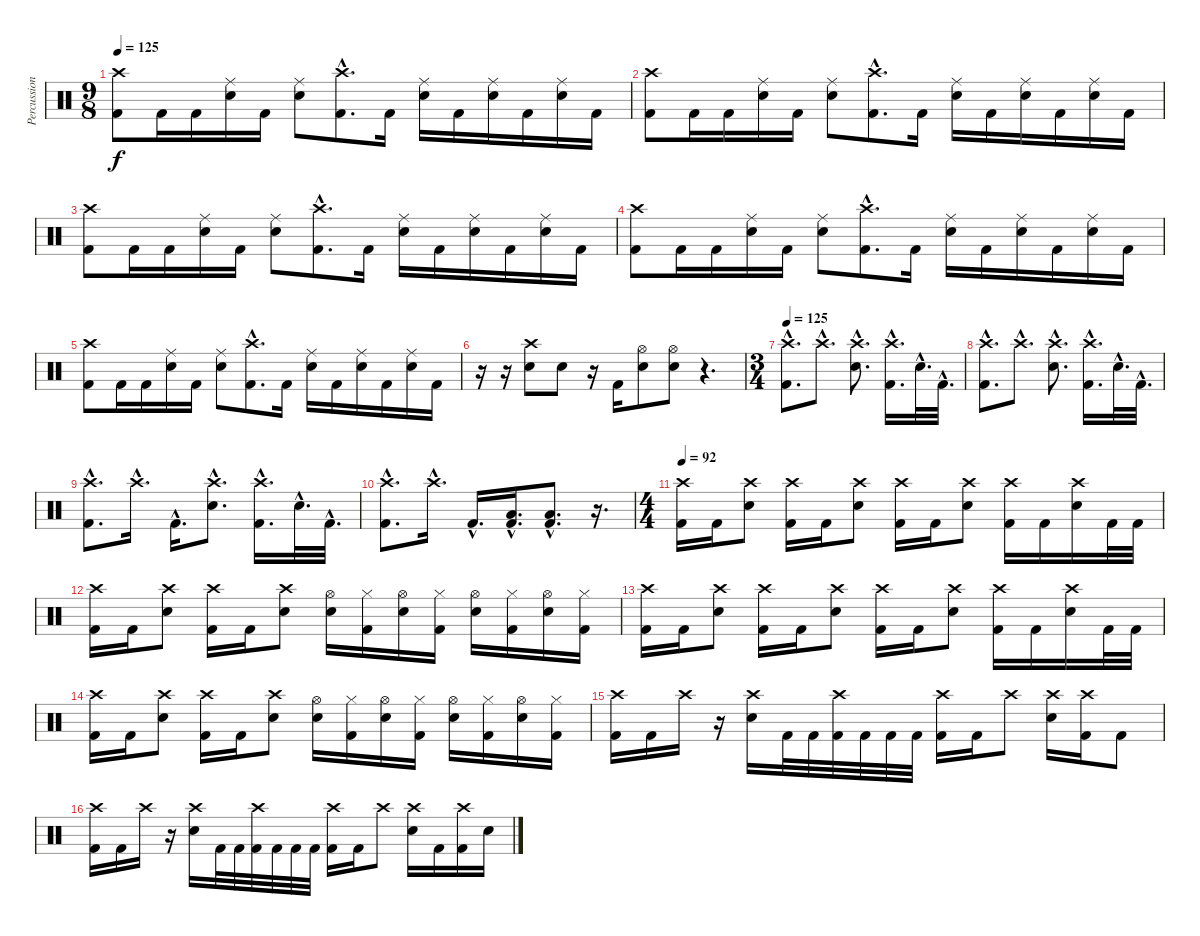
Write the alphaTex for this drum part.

\track ("Percussion" "Percussion") {instrument percussion}
\staff {score}
\articulation defaults
\ts (9 8)
\tempo 125
\clef neutral
\ks c
("Crash high (hit)" "Kick (hit) 2").8{dy f} "Kick (hit) 2".16 "Kick (hit) 2".16 ("Ride (middle)" "Electric Snare (hit)").16 "Kick (hit) 2".16 ("Ride (middle)" "Electric Snare (hit)").8 ("Crash high (hit)"{hac} "Kick (hit) 2"{hac}).8{d} "Kick (hit) 2".16 ("Ride (middle)" "Electric Snare (hit)").16 "Kick (hit) 2".16 ("Ride (middle)" "Electric Snare (hit)").16 "Kick (hit) 2".16 ("Ride (middle)" "Electric Snare (hit)").16 "Kick (hit) 2".16 |
("Crash high (hit)" "Kick (hit) 2").8 "Kick (hit) 2".16 "Kick (hit) 2".16 ("Ride (middle)" "Electric Snare (hit)").16 "Kick (hit) 2".16 ("Ride (middle)" "Electric Snare (hit)").8 ("Crash high (hit)"{hac} "Kick (hit) 2"{hac}).8{d} "Kick (hit) 2".16 ("Ride (middle)" "Electric Snare (hit)").16 "Kick (hit) 2".16 ("Ride (middle)" "Electric Snare (hit)").16 "Kick (hit) 2".16 ("Ride (middle)" "Electric Snare (hit)").16 "Kick (hit) 2".16 |
("Crash high (hit)" "Kick (hit) 2").8 "Kick (hit) 2".16 "Kick (hit) 2".16 ("Ride (middle)" "Electric Snare (hit)").16 "Kick (hit) 2".16 ("Ride (middle)" "Electric Snare (hit)").8 ("Crash high (hit)"{hac} "Kick (hit) 2"{hac}).8{d} "Kick (hit) 2".16 ("Ride (middle)" "Electric Snare (hit)").16 "Kick (hit) 2".16 ("Ride (middle)" "Electric Snare (hit)").16 "Kick (hit) 2".16 ("Ride (middle)" "Electric Snare (hit)").16 "Kick (hit) 2".16 |
("Crash high (hit)" "Kick (hit) 2").8 "Kick (hit) 2".16 "Kick (hit) 2".16 ("Ride (middle)" "Electric Snare (hit)").16 "Kick (hit) 2".16 ("Ride (middle)" "Electric Snare (hit)").8 ("Crash high (hit)"{hac} "Kick (hit) 2"{hac}).8{d} "Kick (hit) 2".16 ("Ride (middle)" "Electric Snare (hit)").16 "Kick (hit) 2".16 ("Ride (middle)" "Electric Snare (hit)").16 "Kick (hit) 2".16 ("Ride (middle)" "Electric Snare (hit)").16 "Kick (hit) 2".16 |
("Crash high (hit)" "Kick (hit) 2").8 "Kick (hit) 2".16 "Kick (hit) 2".16 ("Ride (middle)" "Electric Snare (hit)").16 "Kick (hit) 2".16 ("Ride (middle)" "Electric Snare (hit)").8 ("Crash high (hit)"{hac} "Kick (hit) 2"{hac}).8{d} "Kick (hit) 2".16 ("Ride (middle)" "Electric Snare (hit)").16 "Kick (hit) 2".16 ("Ride (middle)" "Electric Snare (hit)").16 "Kick (hit) 2".16 ("Ride (middle)" "Electric Snare (hit)").16 "Kick (hit) 2".16 |
r.16 r.16 ("Crash high (hit)" "Electric Snare (hit)").8 "Electric Snare (hit)".8 r.16 "Kick (hit) 2".16 ("Hi-Hat (open)" "Electric Snare (hit)").8 ("Hi-Hat (open)" "Electric Snare (hit)").8 r.4{d} |
\ts (3 4)
\tempo 125
("Crash high (hit)"{hac} "Kick (hit) 2"{hac}).8{d} "Crash high (hit)"{hac}.8{d} ("Crash high (hit)"{hac} "Electric Snare (hit)"{hac}).8{d} ("Crash high (hit)"{hac} "Kick (hit) 2"{hac}).16{d} "Electric Snare (hit)"{hac}.32{d} "Kick (hit) 2"{hac}.32{d} |
("Crash high (hit)"{hac} "Kick (hit) 2"{hac}).8{d} "Crash high (hit)"{hac}.8{d} ("Crash high (hit)"{hac} "Electric Snare (hit)"{hac}).8{d} ("Crash high (hit)"{hac} "Kick (hit) 2"{hac}).16{d} "Electric Snare (hit)"{hac}.32{d} "Kick (hit) 2"{hac}.32{d} |
("Crash high (hit)"{hac} "Kick (hit) 2"{hac}).8{d} "Crash high (hit)"{hac}.16{d} "Kick (hit) 2"{hac}.16{d} ("Crash high (hit)"{hac} "Electric Snare (hit)"{hac}).8{d} ("Crash high (hit)"{hac} "Kick (hit) 2"{hac}).16{d} "Electric Snare (hit)"{hac}.32{d} "Kick (hit) 2"{hac}.32{d} |
("Crash high (hit)"{hac} "Kick (hit) 2"{hac}).8{d} "Crash high (hit)"{hac}.16{d} "Kick (hit) 2"{hac}.16{d} ("Low Tom (hit)"{hac} "Kick (hit) 2"{hac}).16{d} ("Low Tom (hit)"{hac} "Kick (hit) 2"{hac}).8{d} r.16{d} |
\ts (4 4)
\tempo 92
("Crash high (hit)" "Kick (hit) 2").16 "Kick (hit) 2".16 ("Crash high (hit)" "Electric Snare (hit)").8 ("Crash high (hit)" "Kick (hit) 2").16 "Kick (hit) 2".16 ("Crash high (hit)" "Electric Snare (hit)").8 ("Crash high (hit)" "Kick (hit) 2").16 "Kick (hit) 2".16 ("Crash high (hit)" "Electric Snare (hit)").8 ("Crash high (hit)" "Kick (hit) 2").16 "Kick (hit) 2".16 ("Crash high (hit)" "Electric Snare (hit)").16 "Kick (hit) 2".32 "Kick (hit) 2".32 |
("Crash high (hit)" "Kick (hit) 2").16 "Kick (hit) 2".16 ("Crash high (hit)" "Electric Snare (hit)").8 ("Crash high (hit)" "Kick (hit) 2").16 "Kick (hit) 2".16 ("Crash high (hit)" "Electric Snare (hit)").8 ("Hi-Hat (open)" "Electric Snare (hit)").16 ("Hi-Hat (closed)" "Kick (hit) 2").16 ("Hi-Hat (open)" "Electric Snare (hit)").16 ("Hi-Hat (closed)" "Kick (hit) 2").16 ("Hi-Hat (open)" "Electric Snare (hit)").16 ("Hi-Hat (closed)" "Kick (hit) 2").16 ("Hi-Hat (open)" "Electric Snare (hit)").16 ("Hi-Hat (closed)" "Kick (hit) 2").16 |
("Crash high (hit)" "Kick (hit) 2").16 "Kick (hit) 2".16 ("Crash high (hit)" "Electric Snare (hit)").8 ("Crash high (hit)" "Kick (hit) 2").16 "Kick (hit) 2".16 ("Crash high (hit)" "Electric Snare (hit)").8 ("Crash high (hit)" "Kick (hit) 2").16 "Kick (hit) 2".16 ("Crash high (hit)" "Electric Snare (hit)").8 ("Crash high (hit)" "Kick (hit) 2").16 "Kick (hit) 2".16 ("Crash high (hit)" "Electric Snare (hit)").16 "Kick (hit) 2".32 "Kick (hit) 2".32 |
("Crash high (hit)" "Kick (hit) 2").16 "Kick (hit) 2".16 ("Crash high (hit)" "Electric Snare (hit)").8 ("Crash high (hit)" "Kick (hit) 2").16 "Kick (hit) 2".16 ("Crash high (hit)" "Electric Snare (hit)").8 ("Hi-Hat (open)" "Electric Snare (hit)").16 ("Hi-Hat (closed)" "Kick (hit) 2").16 ("Hi-Hat (open)" "Electric Snare (hit)").16 ("Hi-Hat (closed)" "Kick (hit) 2").16 ("Hi-Hat (open)" "Electric Snare (hit)").16 ("Hi-Hat (closed)" "Kick (hit) 2").16 ("Hi-Hat (open)" "Electric Snare (hit)").16 ("Hi-Hat (closed)" "Kick (hit) 2").16 |
("Crash high (hit)" "Kick (hit) 2").16 "Kick (hit) 2".16 "Crash high (hit)".16 r.16 ("Crash high (hit)" "Electric Snare (hit)").16 "Kick (hit) 2".32 "Kick (hit) 2".32 ("Crash high (hit)" "Kick (hit) 2").32 "Kick (hit) 2".32 "Kick (hit) 2".32 "Kick (hit) 2".32 ("Crash high (hit)" "Kick (hit) 2").16 "Kick (hit) 2".16 "Crash high (hit)".8 ("Crash high (hit)" "Electric Snare (hit)").16 ("Crash high (hit)" "Kick (hit) 2").16 "Kick (hit) 2".8 |
("Crash high (hit)" "Kick (hit) 2").16 "Kick (hit) 2".16 "Crash high (hit)".16 r.16 ("Crash high (hit)" "Electric Snare (hit)").16 "Kick (hit) 2".32 "Kick (hit) 2".32 ("Crash high (hit)" "Kick (hit) 2").32 "Kick (hit) 2".32 "Kick (hit) 2".32 "Kick (hit) 2".32 ("Crash high (hit)" "Kick (hit) 2").16 "Kick (hit) 2".16 "Crash high (hit)".8 ("Crash high (hit)" "Electric Snare (hit)").16 "Kick (hit) 2".16 ("Crash high (hit)" "Kick (hit) 2").16 "Electric Snare (hit)".16
